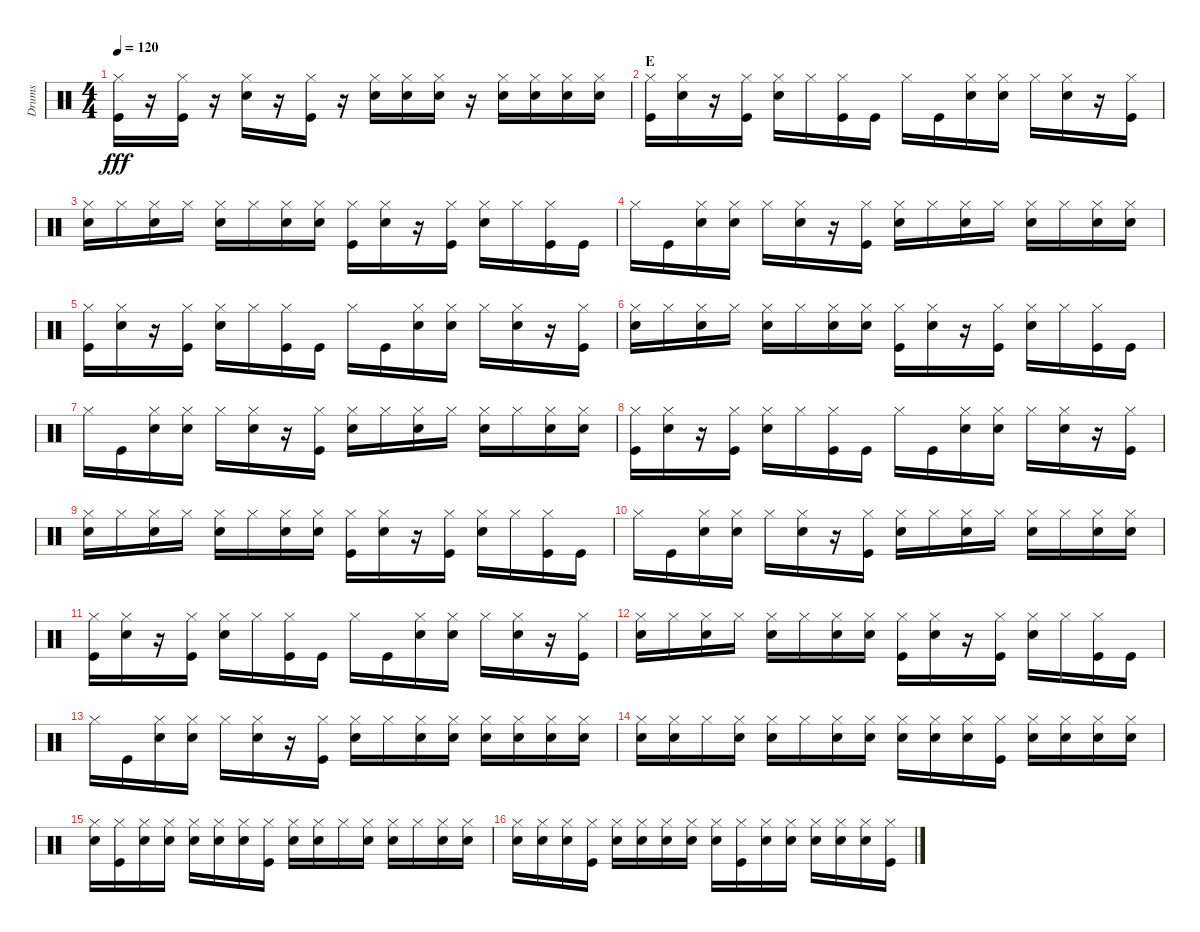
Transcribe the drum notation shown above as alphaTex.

\track ("Drums" "Drums") {instrument percussion}
\staff {score}
\articulation defaults
\ts (4 4)
\tempo 120
\clef neutral
\ks c
("Kick (hit)" "Hi-Hat (closed)").16{dy fff} r.16 ("Kick (hit)" "Hi-Hat (closed)").16 r.16 ("Snare (hit) 2" "Hi-Hat (closed)").16 r.16 ("Kick (hit)" "Hi-Hat (closed)").16 r.16 ("Snare (hit) 2" "Hi-Hat (closed)").16 ("Snare (hit) 2" "Hi-Hat (closed)").16 ("Snare (hit) 2" "Hi-Hat (closed)").16 r.16 ("Snare (hit) 2" "Hi-Hat (closed)").16 ("Snare (hit) 2" "Hi-Hat (closed)").16 ("Snare (hit) 2" "Hi-Hat (closed)").16 ("Snare (hit) 2" "Hi-Hat (closed)").16 |
\section ("" "E")
("Kick (hit)" "Hi-Hat (closed)").16 ("Snare (hit) 2" "Hi-Hat (closed)").16 r.16 ("Kick (hit)" "Hi-Hat (closed)").16 ("Snare (hit) 2" "Hi-Hat (closed)").16 "Hi-Hat (closed)".16 ("Kick (hit)" "Hi-Hat (closed)").16 "Kick (hit)".16 "Hi-Hat (closed)".16 "Kick (hit)".16 ("Snare (hit) 2" "Hi-Hat (closed)").16 ("Snare (hit) 2" "Hi-Hat (closed)").16 "Hi-Hat (closed)".16 ("Snare (hit) 2" "Hi-Hat (closed)").16 r.16 ("Kick (hit)" "Hi-Hat (closed)").16 |
("Snare (hit) 2" "Hi-Hat (closed)").16 "Hi-Hat (closed)".16 ("Snare (hit) 2" "Hi-Hat (closed)").16 "Hi-Hat (closed)".16 ("Snare (hit) 2" "Hi-Hat (closed)").16 "Hi-Hat (closed)".16 ("Snare (hit) 2" "Hi-Hat (closed)").16 ("Snare (hit) 2" "Hi-Hat (closed)").16 ("Kick (hit)" "Hi-Hat (closed)").16 ("Snare (hit) 2" "Hi-Hat (closed)").16 r.16 ("Kick (hit)" "Hi-Hat (closed)").16 ("Snare (hit) 2" "Hi-Hat (closed)").16 "Hi-Hat (closed)".16 ("Kick (hit)" "Hi-Hat (closed)").16 "Kick (hit)".16 |
"Hi-Hat (closed)".16 "Kick (hit)".16 ("Snare (hit) 2" "Hi-Hat (closed)").16 ("Snare (hit) 2" "Hi-Hat (closed)").16 "Hi-Hat (closed)".16 ("Snare (hit) 2" "Hi-Hat (closed)").16 r.16 ("Kick (hit)" "Hi-Hat (closed)").16 ("Snare (hit) 2" "Hi-Hat (closed)").16 "Hi-Hat (closed)".16 ("Snare (hit) 2" "Hi-Hat (closed)").16 "Hi-Hat (closed)".16 ("Snare (hit) 2" "Hi-Hat (closed)").16 "Hi-Hat (closed)".16 ("Snare (hit) 2" "Hi-Hat (closed)").16 ("Snare (hit) 2" "Hi-Hat (closed)").16 |
("Kick (hit)" "Hi-Hat (closed)").16 ("Snare (hit) 2" "Hi-Hat (closed)").16 r.16 ("Kick (hit)" "Hi-Hat (closed)").16 ("Snare (hit) 2" "Hi-Hat (closed)").16 "Hi-Hat (closed)".16 ("Kick (hit)" "Hi-Hat (closed)").16 "Kick (hit)".16 "Hi-Hat (closed)".16 "Kick (hit)".16 ("Snare (hit) 2" "Hi-Hat (closed)").16 ("Snare (hit) 2" "Hi-Hat (closed)").16 "Hi-Hat (closed)".16 ("Snare (hit) 2" "Hi-Hat (closed)").16 r.16 ("Kick (hit)" "Hi-Hat (closed)").16 |
("Snare (hit) 2" "Hi-Hat (closed)").16 "Hi-Hat (closed)".16 ("Snare (hit) 2" "Hi-Hat (closed)").16 "Hi-Hat (closed)".16 ("Snare (hit) 2" "Hi-Hat (closed)").16 "Hi-Hat (closed)".16 ("Snare (hit) 2" "Hi-Hat (closed)").16 ("Snare (hit) 2" "Hi-Hat (closed)").16 ("Kick (hit)" "Hi-Hat (closed)").16 ("Snare (hit) 2" "Hi-Hat (closed)").16 r.16 ("Kick (hit)" "Hi-Hat (closed)").16 ("Snare (hit) 2" "Hi-Hat (closed)").16 "Hi-Hat (closed)".16 ("Kick (hit)" "Hi-Hat (closed)").16 "Kick (hit)".16 |
"Hi-Hat (closed)".16 "Kick (hit)".16 ("Snare (hit) 2" "Hi-Hat (closed)").16 ("Snare (hit) 2" "Hi-Hat (closed)").16 "Hi-Hat (closed)".16 ("Snare (hit) 2" "Hi-Hat (closed)").16 r.16 ("Kick (hit)" "Hi-Hat (closed)").16 ("Snare (hit) 2" "Hi-Hat (closed)").16 "Hi-Hat (closed)".16 ("Snare (hit) 2" "Hi-Hat (closed)").16 "Hi-Hat (closed)".16 ("Snare (hit) 2" "Hi-Hat (closed)").16 "Hi-Hat (closed)".16 ("Snare (hit) 2" "Hi-Hat (closed)").16 ("Snare (hit) 2" "Hi-Hat (closed)").16 |
("Kick (hit)" "Hi-Hat (closed)").16 ("Snare (hit) 2" "Hi-Hat (closed)").16 r.16 ("Kick (hit)" "Hi-Hat (closed)").16 ("Snare (hit) 2" "Hi-Hat (closed)").16 "Hi-Hat (closed)".16 ("Kick (hit)" "Hi-Hat (closed)").16 "Kick (hit)".16 "Hi-Hat (closed)".16 "Kick (hit)".16 ("Snare (hit) 2" "Hi-Hat (closed)").16 ("Snare (hit) 2" "Hi-Hat (closed)").16 "Hi-Hat (closed)".16 ("Snare (hit) 2" "Hi-Hat (closed)").16 r.16 ("Kick (hit)" "Hi-Hat (closed)").16 |
("Snare (hit) 2" "Hi-Hat (closed)").16 "Hi-Hat (closed)".16 ("Snare (hit) 2" "Hi-Hat (closed)").16 "Hi-Hat (closed)".16 ("Snare (hit) 2" "Hi-Hat (closed)").16 "Hi-Hat (closed)".16 ("Snare (hit) 2" "Hi-Hat (closed)").16 ("Snare (hit) 2" "Hi-Hat (closed)").16 ("Kick (hit)" "Hi-Hat (closed)").16 ("Snare (hit) 2" "Hi-Hat (closed)").16 r.16 ("Kick (hit)" "Hi-Hat (closed)").16 ("Snare (hit) 2" "Hi-Hat (closed)").16 "Hi-Hat (closed)".16 ("Kick (hit)" "Hi-Hat (closed)").16 "Kick (hit)".16 |
"Hi-Hat (closed)".16 "Kick (hit)".16 ("Snare (hit) 2" "Hi-Hat (closed)").16 ("Snare (hit) 2" "Hi-Hat (closed)").16 "Hi-Hat (closed)".16 ("Snare (hit) 2" "Hi-Hat (closed)").16 r.16 ("Kick (hit)" "Hi-Hat (closed)").16 ("Snare (hit) 2" "Hi-Hat (closed)").16 "Hi-Hat (closed)".16 ("Snare (hit) 2" "Hi-Hat (closed)").16 "Hi-Hat (closed)".16 ("Snare (hit) 2" "Hi-Hat (closed)").16 "Hi-Hat (closed)".16 ("Snare (hit) 2" "Hi-Hat (closed)").16 ("Snare (hit) 2" "Hi-Hat (closed)").16 |
("Kick (hit)" "Hi-Hat (closed)").16 ("Snare (hit) 2" "Hi-Hat (closed)").16 r.16 ("Kick (hit)" "Hi-Hat (closed)").16 ("Snare (hit) 2" "Hi-Hat (closed)").16 "Hi-Hat (closed)".16 ("Kick (hit)" "Hi-Hat (closed)").16 "Kick (hit)".16 "Hi-Hat (closed)".16 "Kick (hit)".16 ("Snare (hit) 2" "Hi-Hat (closed)").16 ("Snare (hit) 2" "Hi-Hat (closed)").16 "Hi-Hat (closed)".16 ("Snare (hit) 2" "Hi-Hat (closed)").16 r.16 ("Kick (hit)" "Hi-Hat (closed)").16 |
("Snare (hit) 2" "Hi-Hat (closed)").16 "Hi-Hat (closed)".16 ("Snare (hit) 2" "Hi-Hat (closed)").16 "Hi-Hat (closed)".16 ("Snare (hit) 2" "Hi-Hat (closed)").16 "Hi-Hat (closed)".16 ("Snare (hit) 2" "Hi-Hat (closed)").16 ("Snare (hit) 2" "Hi-Hat (closed)").16 ("Kick (hit)" "Hi-Hat (closed)").16 ("Snare (hit) 2" "Hi-Hat (closed)").16 r.16 ("Kick (hit)" "Hi-Hat (closed)").16 ("Snare (hit) 2" "Hi-Hat (closed)").16 "Hi-Hat (closed)".16 ("Kick (hit)" "Hi-Hat (closed)").16 "Kick (hit)".16 |
"Hi-Hat (closed)".16 "Kick (hit)".16 ("Snare (hit) 2" "Hi-Hat (closed)").16 ("Snare (hit) 2" "Hi-Hat (closed)").16 "Hi-Hat (closed)".16 ("Snare (hit) 2" "Hi-Hat (closed)").16 r.16 ("Kick (hit)" "Hi-Hat (closed)").16 ("Snare (hit) 2" "Hi-Hat (closed)").16 "Hi-Hat (closed)".16 ("Snare (hit) 2" "Hi-Hat (closed)").16 ("Snare (hit) 2" "Hi-Hat (closed)").16 ("Snare (hit) 2" "Hi-Hat (closed)").16 ("Snare (hit) 2" "Hi-Hat (closed)").16 ("Snare (hit) 2" "Hi-Hat (closed)").16 ("Snare (hit) 2" "Hi-Hat (closed)").16 |
("Snare (hit) 2" "Hi-Hat (closed)").16 ("Snare (hit) 2" "Hi-Hat (closed)").16 "Hi-Hat (closed)".16 ("Snare (hit) 2" "Hi-Hat (closed)").16 ("Snare (hit) 2" "Hi-Hat (closed)").16 "Hi-Hat (closed)".16 ("Snare (hit) 2" "Hi-Hat (closed)").16 ("Snare (hit) 2" "Hi-Hat (closed)").16 ("Snare (hit) 2" "Hi-Hat (closed)").16 ("Snare (hit) 2" "Hi-Hat (closed)").16 ("Snare (hit) 2" "Hi-Hat (closed)").16 ("Kick (hit)" "Hi-Hat (closed)").16 ("Snare (hit) 2" "Hi-Hat (closed)").16 ("Snare (hit) 2" "Hi-Hat (closed)").16 ("Snare (hit) 2" "Hi-Hat (closed)").16 ("Snare (hit) 2" "Hi-Hat (closed)").16 |
("Snare (hit) 2" "Hi-Hat (closed)").16 ("Kick (hit)" "Hi-Hat (closed)").16 ("Snare (hit) 2" "Hi-Hat (closed)").16 ("Snare (hit) 2" "Hi-Hat (closed)").16 ("Snare (hit) 2" "Hi-Hat (closed)").16 ("Snare (hit) 2" "Hi-Hat (closed)").16 ("Snare (hit) 2" "Hi-Hat (closed)").16 ("Kick (hit)" "Hi-Hat (closed)").16 ("Snare (hit) 2" "Hi-Hat (closed)").16 ("Snare (hit) 2" "Hi-Hat (closed)").16 "Hi-Hat (closed)".16 ("Snare (hit) 2" "Hi-Hat (closed)").16 ("Snare (hit) 2" "Hi-Hat (closed)").16 "Hi-Hat (closed)".16 ("Snare (hit) 2" "Hi-Hat (closed)").16 ("Snare (hit) 2" "Hi-Hat (closed)").16 |
("Snare (hit) 2" "Hi-Hat (closed)").16 ("Snare (hit) 2" "Hi-Hat (closed)").16 ("Snare (hit) 2" "Hi-Hat (closed)").16 ("Kick (hit)" "Hi-Hat (closed)").16 ("Snare (hit) 2" "Hi-Hat (closed)").16 ("Snare (hit) 2" "Hi-Hat (closed)").16 ("Snare (hit) 2" "Hi-Hat (closed)").16 ("Snare (hit) 2" "Hi-Hat (closed)").16 ("Snare (hit) 2" "Hi-Hat (closed)").16 ("Kick (hit)" "Hi-Hat (closed)").16 ("Snare (hit) 2" "Hi-Hat (closed)").16 ("Snare (hit) 2" "Hi-Hat (closed)").16 ("Snare (hit) 2" "Hi-Hat (closed)").16 ("Snare (hit) 2" "Hi-Hat (closed)").16 ("Snare (hit) 2" "Hi-Hat (closed)").16 ("Kick (hit)" "Hi-Hat (closed)").16
